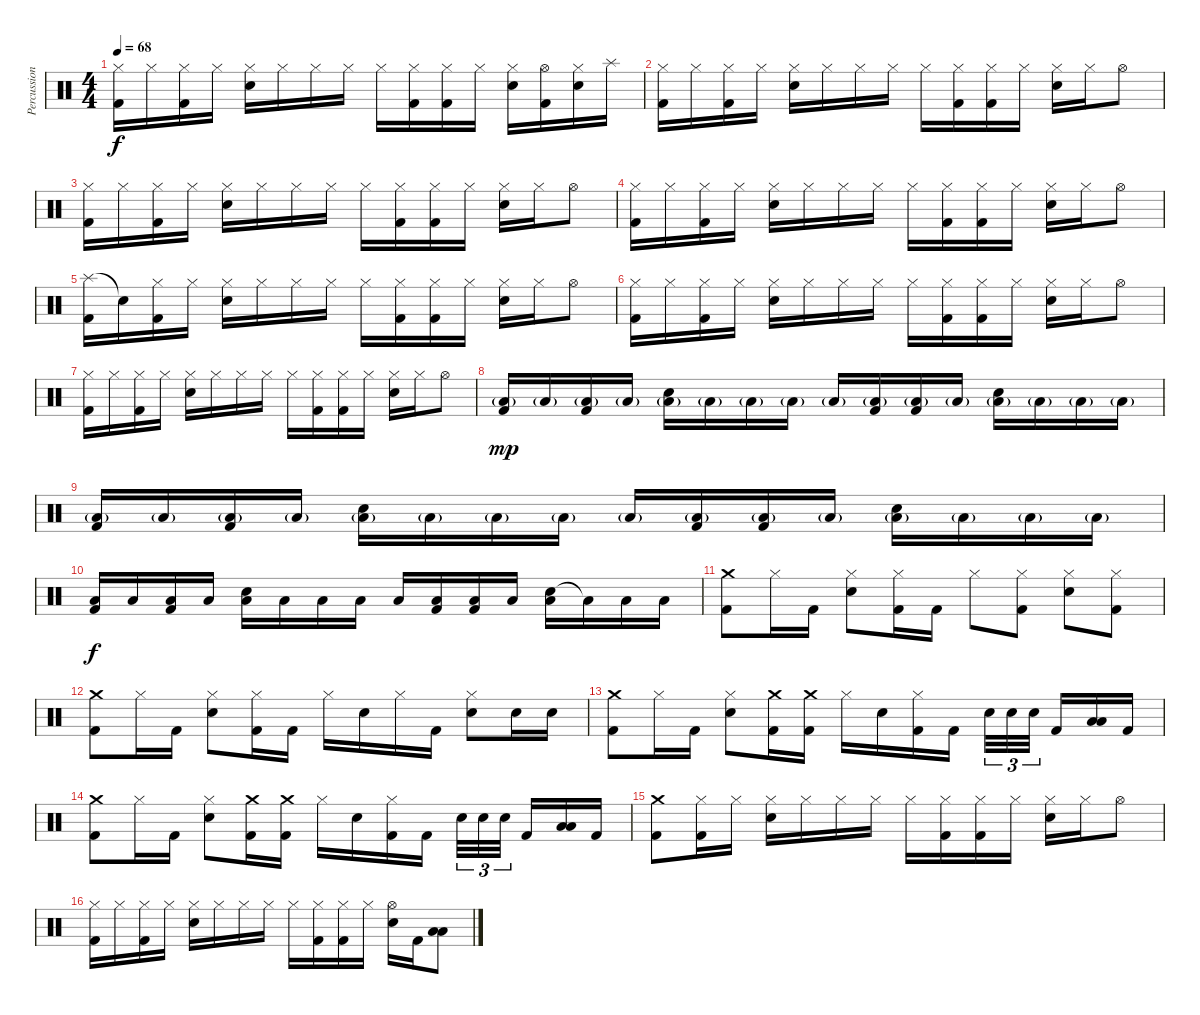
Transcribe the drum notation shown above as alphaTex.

\track ("Percussion" "Percussion") {instrument percussion}
\staff {score}
\articulation defaults
\ts (4 4)
\tempo 68
\clef neutral
\ks c
("Hi-Hat (closed)" "Kick (hit) 2").16{dy f} "Hi-Hat (closed)".16 ("Hi-Hat (closed)" "Kick (hit) 2").16 "Hi-Hat (closed)".16 ("Hi-Hat (closed)" "Electric Snare (hit)").16 "Hi-Hat (closed)".16 "Hi-Hat (closed)".16 "Hi-Hat (closed)".16 "Hi-Hat (closed)".16 ("Hi-Hat (closed)" "Kick (hit) 2").16 ("Hi-Hat (closed)" "Kick (hit) 2").16 "Hi-Hat (closed)".16 ("Hi-Hat (closed)" "Electric Snare (hit)").16 ("Hi-Hat (open)" "Kick (hit) 2").16 ("Hi-Hat (closed)" "Electric Snare (hit)").16 "Splash (hit)".16 |
("Hi-Hat (closed)" "Kick (hit) 2").16 "Hi-Hat (closed)".16 ("Hi-Hat (closed)" "Kick (hit) 2").16 "Hi-Hat (closed)".16 ("Hi-Hat (closed)" "Electric Snare (hit)").16 "Hi-Hat (closed)".16 "Hi-Hat (closed)".16 "Hi-Hat (closed)".16 "Hi-Hat (closed)".16 ("Hi-Hat (closed)" "Kick (hit) 2").16 ("Hi-Hat (closed)" "Kick (hit) 2").16 "Hi-Hat (closed)".16 ("Hi-Hat (closed)" "Electric Snare (hit)").16 "Hi-Hat (closed)".16 "Hi-Hat (open)".8 |
("Hi-Hat (closed)" "Kick (hit) 2").16 "Hi-Hat (closed)".16 ("Hi-Hat (closed)" "Kick (hit) 2").16 "Hi-Hat (closed)".16 ("Hi-Hat (closed)" "Electric Snare (hit)").16 "Hi-Hat (closed)".16 "Hi-Hat (closed)".16 "Hi-Hat (closed)".16 "Hi-Hat (closed)".16 ("Hi-Hat (closed)" "Kick (hit) 2").16 ("Hi-Hat (closed)" "Kick (hit) 2").16 "Hi-Hat (closed)".16 ("Hi-Hat (closed)" "Electric Snare (hit)").16 "Hi-Hat (closed)".16 "Hi-Hat (open)".8 |
("Hi-Hat (closed)" "Kick (hit) 2").16 "Hi-Hat (closed)".16 ("Hi-Hat (closed)" "Kick (hit) 2").16 "Hi-Hat (closed)".16 ("Hi-Hat (closed)" "Electric Snare (hit)").16 "Hi-Hat (closed)".16 "Hi-Hat (closed)".16 "Hi-Hat (closed)".16 "Hi-Hat (closed)".16 ("Hi-Hat (closed)" "Kick (hit) 2").16 ("Hi-Hat (closed)" "Kick (hit) 2").16 "Hi-Hat (closed)".16 ("Hi-Hat (closed)" "Electric Snare (hit)").16 "Hi-Hat (closed)".16 "Hi-Hat (open)".8 |
("Splash (hit)" "Kick (hit) 2").16 "Snare (hit)"{t}.16 ("Hi-Hat (closed)" "Kick (hit) 2").16 "Hi-Hat (closed)".16 ("Hi-Hat (closed)" "Electric Snare (hit)").16 "Hi-Hat (closed)".16 "Hi-Hat (closed)".16 "Hi-Hat (closed)".16 "Hi-Hat (closed)".16 ("Hi-Hat (closed)" "Kick (hit) 2").16 ("Hi-Hat (closed)" "Kick (hit) 2").16 "Hi-Hat (closed)".16 ("Hi-Hat (closed)" "Electric Snare (hit)").16 "Hi-Hat (closed)".16 "Hi-Hat (open)".8 |
("Hi-Hat (closed)" "Kick (hit) 2").16 "Hi-Hat (closed)".16 ("Hi-Hat (closed)" "Kick (hit) 2").16 "Hi-Hat (closed)".16 ("Hi-Hat (closed)" "Electric Snare (hit)").16 "Hi-Hat (closed)".16 "Hi-Hat (closed)".16 "Hi-Hat (closed)".16 "Hi-Hat (closed)".16 ("Hi-Hat (closed)" "Kick (hit) 2").16 ("Hi-Hat (closed)" "Kick (hit) 2").16 "Hi-Hat (closed)".16 ("Hi-Hat (closed)" "Electric Snare (hit)").16 "Hi-Hat (closed)".16 "Hi-Hat (open)".8 |
("Hi-Hat (closed)" "Kick (hit) 2").16 "Hi-Hat (closed)".16 ("Hi-Hat (closed)" "Kick (hit) 2").16 "Hi-Hat (closed)".16 ("Hi-Hat (closed)" "Electric Snare (hit)").16 "Hi-Hat (closed)".16 "Hi-Hat (closed)".16 "Hi-Hat (closed)".16 "Hi-Hat (closed)".16 ("Hi-Hat (closed)" "Kick (hit) 2").16 ("Hi-Hat (closed)" "Kick (hit) 2").16 "Hi-Hat (closed)".16 ("Hi-Hat (closed)" "Electric Snare (hit)").16 "Hi-Hat (closed)".16 "Hi-Hat (open)".8 |
("Low Floor Tom (hit)"{g} "Kick (hit) 2").16{dy mp} "Low Floor Tom (hit)"{g}.16 ("Low Floor Tom (hit)"{g} "Kick (hit) 2").16 "Low Floor Tom (hit)"{g}.16 ("Electric Snare (hit)" "Low Floor Tom (hit)"{g}).16 "Low Floor Tom (hit)"{g}.16 "Low Floor Tom (hit)"{g}.16 "Low Floor Tom (hit)"{g}.16 "Low Floor Tom (hit)"{g}.16 ("Low Floor Tom (hit)"{g} "Kick (hit) 2").16 ("Low Floor Tom (hit)"{g} "Kick (hit) 2").16 "Low Floor Tom (hit)"{g}.16 ("Electric Snare (hit)" "Low Floor Tom (hit)"{g}).16 "Low Floor Tom (hit)"{g}.16 "Low Floor Tom (hit)"{g}.16 "Low Floor Tom (hit)"{g}.16 |
("Low Floor Tom (hit)"{g} "Kick (hit) 2").16 "Low Floor Tom (hit)"{g}.16 ("Low Floor Tom (hit)"{g} "Kick (hit) 2").16 "Low Floor Tom (hit)"{g}.16 ("Electric Snare (hit)" "Low Floor Tom (hit)"{g}).16 "Low Floor Tom (hit)"{g}.16 "Low Floor Tom (hit)"{g}.16 "Low Floor Tom (hit)"{g}.16 "Low Floor Tom (hit)"{g}.16 ("Low Floor Tom (hit)"{g} "Kick (hit) 2").16 ("Low Floor Tom (hit)"{g} "Kick (hit) 2").16 "Low Floor Tom (hit)"{g}.16 ("Electric Snare (hit)" "Low Floor Tom (hit)"{g}).16 "Low Floor Tom (hit)"{g}.16 "Low Floor Tom (hit)"{g}.16 "Low Floor Tom (hit)"{g}.16 |
("Low Floor Tom (hit)" "Kick (hit) 2").16{dy f} "Low Floor Tom (hit)".16 ("Low Floor Tom (hit)" "Kick (hit) 2").16 "Low Floor Tom (hit)".16 ("Electric Snare (hit)" "Low Floor Tom (hit)").16 "Low Floor Tom (hit)".16 "Low Floor Tom (hit)".16 "Low Floor Tom (hit)".16 "Low Floor Tom (hit)".16 ("Low Floor Tom (hit)" "Kick (hit) 2").16 ("Low Floor Tom (hit)" "Kick (hit) 2").16 "Low Floor Tom (hit)".16 ("Electric Snare (hit)" "Low Floor Tom (hit)").16 "Low Floor Tom (hit)"{t}.16 "Low Floor Tom (hit)".16 "Low Floor Tom (hit)".16 |
("Crash medium (hit)" "Kick (hit) 2").8 "Hi-Hat (closed)".16 "Kick (hit) 2".16 ("Hi-Hat (closed)" "Electric Snare (hit)").8 ("Hi-Hat (closed)" "Kick (hit) 2").16 "Kick (hit) 2".16 "Hi-Hat (closed)".8 ("Hi-Hat (closed)" "Kick (hit) 2").8 ("Hi-Hat (closed)" "Electric Snare (hit)").8 ("Hi-Hat (closed)" "Kick (hit) 2").8 |
("Crash medium (hit)" "Kick (hit) 2").8 "Hi-Hat (closed)".16 "Kick (hit) 2".16 ("Hi-Hat (closed)" "Electric Snare (hit)").8 ("Hi-Hat (closed)" "Kick (hit) 2").16 "Kick (hit) 2".16 "Hi-Hat (closed)".16 "Electric Snare (hit)".16 "Hi-Hat (closed)".16 "Kick (hit) 2".16 ("Hi-Hat (closed)" "Electric Snare (hit)").8 "Electric Snare (hit)".16 "Electric Snare (hit)".16 |
("Crash medium (hit)" "Kick (hit) 2").8 "Hi-Hat (closed)".16 "Kick (hit) 2".16 ("Hi-Hat (closed)" "Electric Snare (hit)").8 ("Crash medium (hit)" "Kick (hit) 2").16 ("Crash medium (hit)" "Kick (hit) 2").16 "Hi-Hat (closed)".16 "Electric Snare (hit)".16 ("Hi-Hat (closed)" "Kick (hit) 2").16 "Kick (hit) 2".16 "Electric Snare (hit)".32{tu (3 2)} "Electric Snare (hit)".32{tu (3 2)} "Electric Snare (hit)".32{tu (3 2) beam splitsecondary} "Kick (hit) 2".16 ("Low Tom (hit)" "Low Floor Tom (hit)").16 "Kick (hit) 2".16 |
("Crash medium (hit)" "Kick (hit) 2").8 "Hi-Hat (closed)".16 "Kick (hit) 2".16 ("Hi-Hat (closed)" "Electric Snare (hit)").8 ("Crash medium (hit)" "Kick (hit) 2").16 ("Crash medium (hit)" "Kick (hit) 2").16 "Hi-Hat (closed)".16 "Electric Snare (hit)".16 ("Hi-Hat (closed)" "Kick (hit) 2").16 "Kick (hit) 2".16 "Electric Snare (hit)".32{tu (3 2)} "Electric Snare (hit)".32{tu (3 2)} "Electric Snare (hit)".32{tu (3 2) beam splitsecondary} "Kick (hit) 2".16 ("Low Tom (hit)" "Low Floor Tom (hit)").16 "Kick (hit) 2".16 |
("Crash medium (hit)" "Kick (hit) 2").8 ("Hi-Hat (closed)" "Kick (hit) 2").16 "Hi-Hat (closed)".16 ("Hi-Hat (closed)" "Electric Snare (hit)").16 "Hi-Hat (closed)".16 "Hi-Hat (closed)".16 "Hi-Hat (closed)".16 "Hi-Hat (closed)".16 ("Hi-Hat (closed)" "Kick (hit) 2").16 ("Hi-Hat (closed)" "Kick (hit) 2").16 "Hi-Hat (closed)".16 ("Hi-Hat (closed)" "Electric Snare (hit)").16 "Hi-Hat (closed)".16 "Hi-Hat (open)".8 |
("Hi-Hat (closed)" "Kick (hit) 2").16 "Hi-Hat (closed)".16 ("Hi-Hat (closed)" "Kick (hit) 2").16 "Hi-Hat (closed)".16 ("Hi-Hat (closed)" "Electric Snare (hit)").16 "Hi-Hat (closed)".16 "Hi-Hat (closed)".16 "Hi-Hat (closed)".16 "Hi-Hat (closed)".16 ("Hi-Hat (closed)" "Kick (hit) 2").16 ("Hi-Hat (closed)" "Kick (hit) 2").16 "Hi-Hat (closed)".16 ("Hi-Hat (open)" "Electric Snare (hit)").16 "Kick (hit) 2".16 ("Low Tom (hit)" "Low Floor Tom (hit)").8
